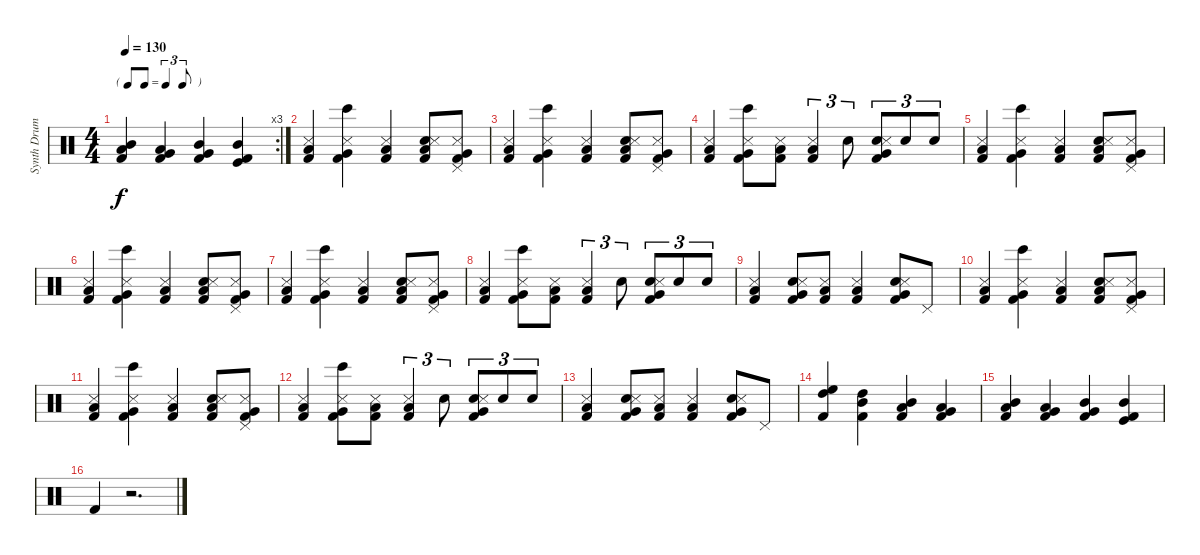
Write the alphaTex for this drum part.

\track ("Synth Drums (Alan Wilder)" "Synth Drum") {instrument percussion}
\staff {score}
\articulation defaults
\rc 3
\ts (4 4)
\tf triplet8th
\tempo 130
\clef neutral
\ks c
("Mid Tom (hit)" "Low Tom (hit)" "Kick (hit) 2").4{dy f} ("Low Tom (hit)" "Very Low Tom (hit)" "Kick (hit) 2").4 ("Very Low Tom (hit)" "Mid Tom (hit)" "Kick (hit) 2").4 ("Mid Tom (hit)" "Kick (hit)" "Kick (hit) 2").4 |
("Low Floor Tom (hit)" "Kick (hit) 2" "Snare (side stick) 3").4 ("Bongo High (hit)" "Very Low Tom (hit)" "Kick (hit) 2" "Snare (side stick) 3").4 ("Low Floor Tom (hit)" "Kick (hit) 2" "Snare (side stick) 3").4 ("Electric Snare (hit)" "Low Floor Tom (hit)" "Kick (hit) 2" "Snare (side stick) 3").8 ("Pedal Hi-Hat (hit)" "Very Low Tom (hit)" "Kick (hit) 2" "Snare (side stick) 3").8 |
("Low Floor Tom (hit)" "Kick (hit) 2" "Snare (side stick) 3").4 ("Bongo High (hit)" "Very Low Tom (hit)" "Kick (hit) 2" "Snare (side stick) 3").4 ("Low Floor Tom (hit)" "Kick (hit) 2" "Snare (side stick) 3").4 ("Electric Snare (hit)" "Low Floor Tom (hit)" "Kick (hit) 2" "Snare (side stick) 3").8 ("Pedal Hi-Hat (hit)" "Very Low Tom (hit)" "Kick (hit) 2" "Snare (side stick) 3").8 |
("Low Floor Tom (hit)" "Kick (hit) 2" "Snare (side stick) 3").4 ("Bongo High (hit)" "Very Low Tom (hit)" "Kick (hit) 2" "Snare (side stick) 3").8 ("Low Floor Tom (hit)" "Kick (hit) 2" "Snare (side stick) 3").8 ("Low Floor Tom (hit)" "Kick (hit) 2" "Snare (side stick) 3").4{tu (3 2)} "Snare (hit) 2".8{tu (3 2)} ("Snare (hit) 2" "Very Low Tom (hit)" "Kick (hit) 2" "Snare (side stick) 3").8{tu (3 2)} "Snare (hit) 2".8{tu (3 2)} "Snare (hit) 2".8{tu (3 2)} |
("Low Floor Tom (hit)" "Kick (hit) 2" "Snare (side stick) 3").4 ("Bongo High (hit)" "Very Low Tom (hit)" "Kick (hit) 2" "Snare (side stick) 3").4 ("Low Floor Tom (hit)" "Kick (hit) 2" "Snare (side stick) 3").4 ("Electric Snare (hit)" "Low Floor Tom (hit)" "Kick (hit) 2" "Snare (side stick) 3").8 ("Pedal Hi-Hat (hit)" "Very Low Tom (hit)" "Kick (hit) 2" "Snare (side stick) 3").8 |
("Low Floor Tom (hit)" "Kick (hit) 2" "Snare (side stick) 3").4 ("Bongo High (hit)" "Very Low Tom (hit)" "Kick (hit) 2" "Snare (side stick) 3").4 ("Low Floor Tom (hit)" "Kick (hit) 2" "Snare (side stick) 3").4 ("Electric Snare (hit)" "Low Floor Tom (hit)" "Kick (hit) 2" "Snare (side stick) 3").8 ("Pedal Hi-Hat (hit)" "Very Low Tom (hit)" "Kick (hit) 2" "Snare (side stick) 3").8 |
("Low Floor Tom (hit)" "Kick (hit) 2" "Snare (side stick) 3").4 ("Bongo High (hit)" "Very Low Tom (hit)" "Kick (hit) 2" "Snare (side stick) 3").4 ("Low Floor Tom (hit)" "Kick (hit) 2" "Snare (side stick) 3").4 ("Electric Snare (hit)" "Low Floor Tom (hit)" "Kick (hit) 2" "Snare (side stick) 3").8 ("Pedal Hi-Hat (hit)" "Very Low Tom (hit)" "Kick (hit) 2" "Snare (side stick) 3").8 |
("Low Floor Tom (hit)" "Kick (hit) 2" "Snare (side stick) 3").4 ("Bongo High (hit)" "Very Low Tom (hit)" "Kick (hit) 2" "Snare (side stick) 3").8 ("Low Floor Tom (hit)" "Kick (hit) 2" "Snare (side stick) 3").8 ("Low Floor Tom (hit)" "Kick (hit) 2" "Snare (side stick) 3").4{tu (3 2)} "Snare (hit) 2".8{tu (3 2)} ("Snare (hit) 2" "Very Low Tom (hit)" "Kick (hit) 2" "Snare (side stick) 3").8{tu (3 2)} "Snare (hit) 2".8{tu (3 2)} "Snare (hit) 2".8{tu (3 2)} |
("Low Floor Tom (hit)" "Kick (hit) 2" "Snare (side stick) 3").4 ("Electric Snare (hit)" "Very Low Tom (hit)" "Kick (hit) 2" "Snare (side stick) 3").8 ("Low Floor Tom (hit)" "Kick (hit) 2" "Snare (side stick) 3").8 ("Low Floor Tom (hit)" "Kick (hit) 2" "Snare (side stick) 3").4 ("Electric Snare (hit)" "Very Low Tom (hit)" "Kick (hit) 2" "Snare (side stick) 3").8 "Pedal Hi-Hat (hit)".8 |
("Low Floor Tom (hit)" "Kick (hit) 2" "Snare (side stick) 3").4 ("Bongo High (hit)" "Very Low Tom (hit)" "Kick (hit) 2" "Snare (side stick) 3").4 ("Low Floor Tom (hit)" "Kick (hit) 2" "Snare (side stick) 3").4 ("Electric Snare (hit)" "Low Floor Tom (hit)" "Kick (hit) 2" "Snare (side stick) 3").8 ("Pedal Hi-Hat (hit)" "Very Low Tom (hit)" "Kick (hit) 2" "Snare (side stick) 3").8 |
("Low Floor Tom (hit)" "Kick (hit) 2" "Snare (side stick) 3").4 ("Bongo High (hit)" "Very Low Tom (hit)" "Kick (hit) 2" "Snare (side stick) 3").4 ("Low Floor Tom (hit)" "Kick (hit) 2" "Snare (side stick) 3").4 ("Electric Snare (hit)" "Low Floor Tom (hit)" "Kick (hit) 2" "Snare (side stick) 3").8 ("Pedal Hi-Hat (hit)" "Very Low Tom (hit)" "Kick (hit) 2" "Snare (side stick) 3").8 |
("Low Floor Tom (hit)" "Kick (hit) 2" "Snare (side stick) 3").4 ("Bongo High (hit)" "Very Low Tom (hit)" "Kick (hit) 2" "Snare (side stick) 3").8 ("Low Floor Tom (hit)" "Kick (hit) 2" "Snare (side stick) 3").8 ("Low Floor Tom (hit)" "Kick (hit) 2" "Snare (side stick) 3").4{tu (3 2)} "Snare (hit) 2".8{tu (3 2)} ("Snare (hit) 2" "Very Low Tom (hit)" "Kick (hit) 2" "Snare (side stick) 3").8{tu (3 2)} "Snare (hit) 2".8{tu (3 2)} "Snare (hit) 2".8{tu (3 2)} |
("Low Floor Tom (hit)" "Kick (hit) 2" "Snare (side stick) 3").4 ("Electric Snare (hit)" "Very Low Tom (hit)" "Kick (hit) 2" "Snare (side stick) 3").8 ("Low Floor Tom (hit)" "Kick (hit) 2" "Snare (side stick) 3").8 ("Low Floor Tom (hit)" "Kick (hit) 2" "Snare (side stick) 3").4 ("Electric Snare (hit)" "Very Low Tom (hit)" "Kick (hit) 2" "Snare (side stick) 3").8 "Pedal Hi-Hat (hit)".8 |
("High Floor Tom (hit)" "High Tom (hit)" "Kick (hit) 2").4 ("High Tom (hit)" "Mid Tom (hit)" "Kick (hit) 2").4 ("Mid Tom (hit)" "Low Tom (hit)" "Kick (hit) 2").4 ("Low Tom (hit)" "Very Low Tom (hit)" "Kick (hit) 2").4 |
("Mid Tom (hit)" "Low Tom (hit)" "Kick (hit) 2").4 ("Low Tom (hit)" "Very Low Tom (hit)" "Kick (hit) 2").4 ("Very Low Tom (hit)" "Mid Tom (hit)" "Kick (hit) 2").4 ("Mid Tom (hit)" "Kick (hit)" "Kick (hit) 2").4 |
"Kick (hit) 2".4 r.2{d}
